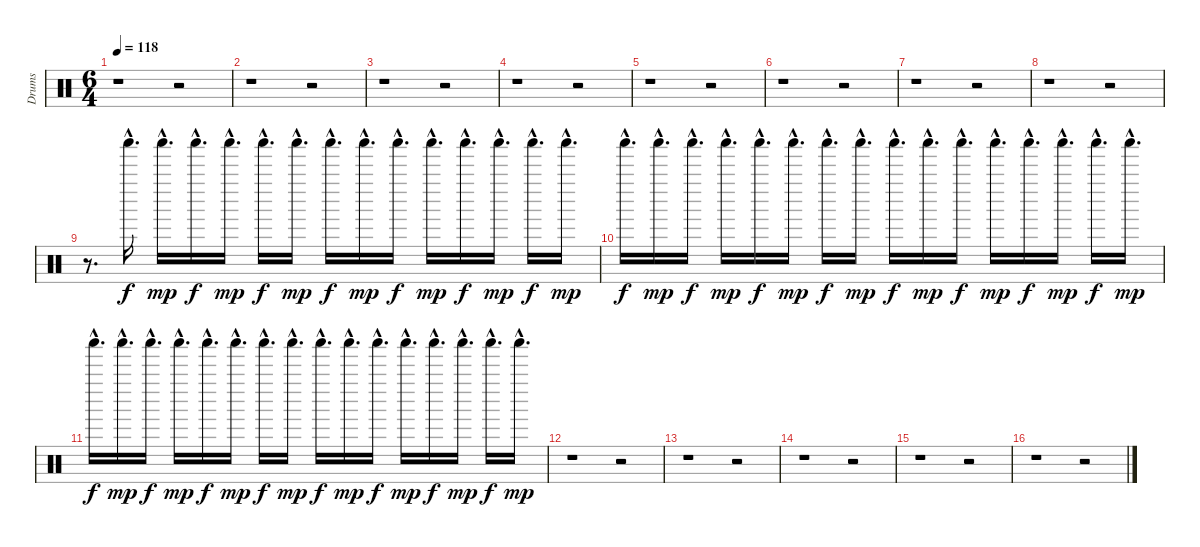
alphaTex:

\track ("Drums" "Drums") {instrument percussion}
\staff {score}
\articulation defaults
\ts (6 4)
\tempo 118
\clef neutral
\ks c
r.1{dy mp} r.2 |
r.1 r.2 |
r.1 r.2 |
r.1 r.2 |
r.1 r.2 |
r.1 r.2 |
r.1 r.2 |
r.1 r.2 |
r.8{d} "Shaker (hit)"{hac}.16{d dy f} "Shaker (hit)"{hac}.16{d dy mp} "Shaker (hit)"{hac}.16{d dy f} "Shaker (hit)"{hac}.16{d dy mp} "Shaker (hit)"{hac}.16{d dy f} "Shaker (hit)"{hac}.16{d dy mp} "Shaker (hit)"{hac}.16{d dy f} "Shaker (hit)"{hac}.16{d dy mp} "Shaker (hit)"{hac}.16{d dy f} "Shaker (hit)"{hac}.16{d dy mp} "Shaker (hit)"{hac}.16{d dy f} "Shaker (hit)"{hac}.16{d dy mp} "Shaker (hit)"{hac}.16{d dy f} "Shaker (hit)"{hac}.16{d dy mp} |
"Shaker (hit)"{hac}.16{d dy f} "Shaker (hit)"{hac}.16{d dy mp} "Shaker (hit)"{hac}.16{d dy f} "Shaker (hit)"{hac}.16{d dy mp} "Shaker (hit)"{hac}.16{d dy f} "Shaker (hit)"{hac}.16{d dy mp} "Shaker (hit)"{hac}.16{d dy f} "Shaker (hit)"{hac}.16{d dy mp} "Shaker (hit)"{hac}.16{d dy f} "Shaker (hit)"{hac}.16{d dy mp} "Shaker (hit)"{hac}.16{d dy f} "Shaker (hit)"{hac}.16{d dy mp} "Shaker (hit)"{hac}.16{d dy f} "Shaker (hit)"{hac}.16{d dy mp} "Shaker (hit)"{hac}.16{d dy f} "Shaker (hit)"{hac}.16{d dy mp} |
"Shaker (hit)"{hac}.16{d dy f} "Shaker (hit)"{hac}.16{d dy mp} "Shaker (hit)"{hac}.16{d dy f} "Shaker (hit)"{hac}.16{d dy mp} "Shaker (hit)"{hac}.16{d dy f} "Shaker (hit)"{hac}.16{d dy mp} "Shaker (hit)"{hac}.16{d dy f} "Shaker (hit)"{hac}.16{d dy mp} "Shaker (hit)"{hac}.16{d dy f} "Shaker (hit)"{hac}.16{d dy mp} "Shaker (hit)"{hac}.16{d dy f} "Shaker (hit)"{hac}.16{d dy mp} "Shaker (hit)"{hac}.16{d dy f} "Shaker (hit)"{hac}.16{d dy mp} "Shaker (hit)"{hac}.16{d dy f} "Shaker (hit)"{hac}.16{d dy mp} |
r.1 r.2 |
r.1 r.2 |
r.1 r.2 |
r.1 r.2 |
r.1 r.2
